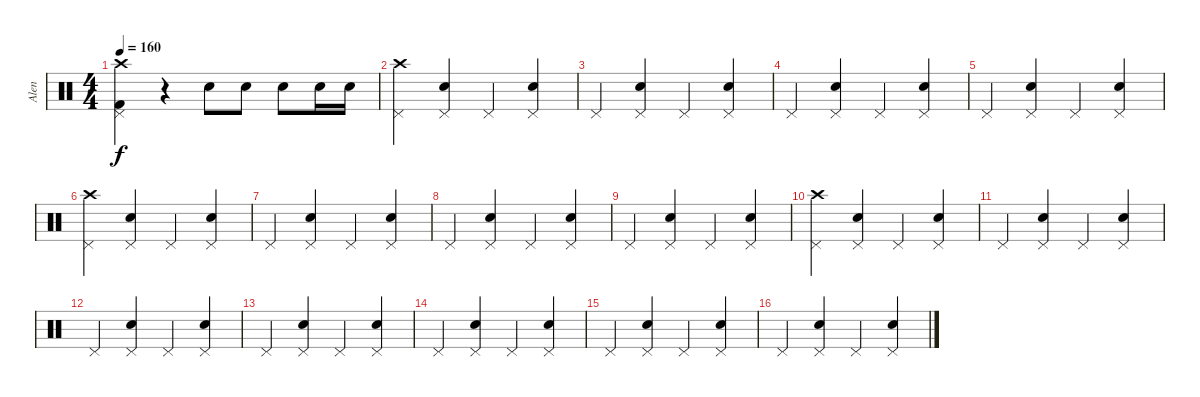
\track ("Alen" "Alen") {instrument percussion}
\staff {score}
\articulation defaults
\ts (4 4)
\tempo 160
\clef neutral
\ks c
("Crash high (hit)" "Pedal Hi-Hat (hit)" "Kick (hit) 2").4{dy f} r.4 "Snare (hit) 2".8 "Snare (hit) 2".8 "Snare (hit) 2".8 "Snare (hit) 2".16 "Snare (hit) 2".16 |
("Pedal Hi-Hat (hit)" "Crash high (hit)").4 ("Pedal Hi-Hat (hit)" "Snare (hit) 2").4 "Pedal Hi-Hat (hit)".4 ("Pedal Hi-Hat (hit)" "Snare (hit) 2").4 |
"Pedal Hi-Hat (hit)".4 ("Pedal Hi-Hat (hit)" "Snare (hit) 2").4 "Pedal Hi-Hat (hit)".4 ("Pedal Hi-Hat (hit)" "Snare (hit) 2").4 |
"Pedal Hi-Hat (hit)".4 ("Pedal Hi-Hat (hit)" "Snare (hit) 2").4 "Pedal Hi-Hat (hit)".4 ("Pedal Hi-Hat (hit)" "Snare (hit) 2").4 |
"Pedal Hi-Hat (hit)".4 ("Pedal Hi-Hat (hit)" "Snare (hit) 2").4 "Pedal Hi-Hat (hit)".4 ("Pedal Hi-Hat (hit)" "Snare (hit) 2").4 |
("Pedal Hi-Hat (hit)" "Crash high (hit)").4 ("Pedal Hi-Hat (hit)" "Snare (hit) 2").4 "Pedal Hi-Hat (hit)".4 ("Pedal Hi-Hat (hit)" "Snare (hit) 2").4 |
"Pedal Hi-Hat (hit)".4 ("Pedal Hi-Hat (hit)" "Snare (hit) 2").4 "Pedal Hi-Hat (hit)".4 ("Pedal Hi-Hat (hit)" "Snare (hit) 2").4 |
"Pedal Hi-Hat (hit)".4 ("Pedal Hi-Hat (hit)" "Snare (hit) 2").4 "Pedal Hi-Hat (hit)".4 ("Pedal Hi-Hat (hit)" "Snare (hit) 2").4 |
"Pedal Hi-Hat (hit)".4 ("Pedal Hi-Hat (hit)" "Snare (hit) 2").4 "Pedal Hi-Hat (hit)".4 ("Pedal Hi-Hat (hit)" "Snare (hit) 2").4 |
("Pedal Hi-Hat (hit)" "Crash high (hit)").4 ("Pedal Hi-Hat (hit)" "Snare (hit) 2").4 "Pedal Hi-Hat (hit)".4 ("Pedal Hi-Hat (hit)" "Snare (hit) 2").4 |
"Pedal Hi-Hat (hit)".4 ("Pedal Hi-Hat (hit)" "Snare (hit) 2").4 "Pedal Hi-Hat (hit)".4 ("Pedal Hi-Hat (hit)" "Snare (hit) 2").4 |
"Pedal Hi-Hat (hit)".4 ("Pedal Hi-Hat (hit)" "Snare (hit) 2").4 "Pedal Hi-Hat (hit)".4 ("Pedal Hi-Hat (hit)" "Snare (hit) 2").4 |
"Pedal Hi-Hat (hit)".4 ("Pedal Hi-Hat (hit)" "Snare (hit) 2").4 "Pedal Hi-Hat (hit)".4 ("Pedal Hi-Hat (hit)" "Snare (hit) 2").4 |
"Pedal Hi-Hat (hit)".4 ("Pedal Hi-Hat (hit)" "Snare (hit) 2").4 "Pedal Hi-Hat (hit)".4 ("Pedal Hi-Hat (hit)" "Snare (hit) 2").4 |
"Pedal Hi-Hat (hit)".4 ("Pedal Hi-Hat (hit)" "Snare (hit) 2").4 "Pedal Hi-Hat (hit)".4 ("Pedal Hi-Hat (hit)" "Snare (hit) 2").4 |
"Pedal Hi-Hat (hit)".4 ("Pedal Hi-Hat (hit)" "Snare (hit) 2").4 "Pedal Hi-Hat (hit)".4 ("Pedal Hi-Hat (hit)" "Snare (hit) 2").4
